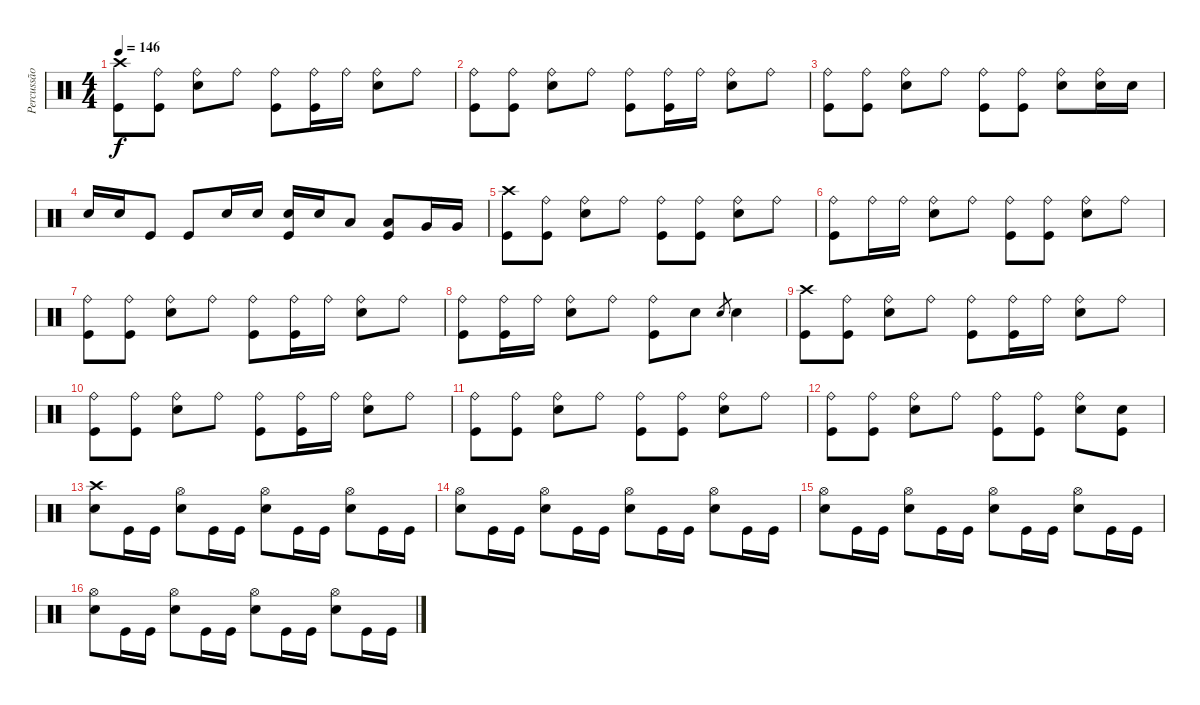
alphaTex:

\track ("Percussão" "Percussão") {instrument percussion}
\staff {score}
\articulation defaults
\ts (4 4)
\tempo 146
\clef neutral
\ks c
("Crash high (hit)" "Kick (hit)").8{dy f} ("Ride (bell)" "Kick (hit)").8 ("Ride (bell)" "Snare (hit) 2").8 "Ride (bell)".8 ("Ride (bell)" "Kick (hit)").8 ("Ride (bell)" "Kick (hit)").16 "Ride (bell)".16 ("Ride (bell)" "Snare (hit) 2").8 "Ride (bell)".8 |
("Ride (bell)" "Kick (hit)").8 ("Ride (bell)" "Kick (hit)").8 ("Ride (bell)" "Snare (hit) 2").8 "Ride (bell)".8 ("Ride (bell)" "Kick (hit)").8 ("Ride (bell)" "Kick (hit)").16 "Ride (bell)".16 ("Ride (bell)" "Snare (hit) 2").8 "Ride (bell)".8 |
("Ride (bell)" "Kick (hit)").8 ("Ride (bell)" "Kick (hit)").8 ("Ride (bell)" "Snare (hit) 2").8 "Ride (bell)".8 ("Ride (bell)" "Kick (hit)").8 ("Ride (bell)" "Kick (hit)").8 ("Ride (bell)" "Snare (hit) 2").8 ("Ride (bell)" "Snare (hit) 2").16 "Snare (hit) 2".16 |
"Snare (hit) 2".16 "Snare (hit) 2".16 "Kick (hit)".8 "Kick (hit)".8 "Snare (hit) 2".16 "Snare (hit) 2".16 ("Snare (hit) 2" "Kick (hit)").16 "Snare (hit) 2".16 "Low Tom (hit)".8 ("Low Tom (hit)" "Kick (hit)").8 "Very Low Tom (hit)".16 "Very Low Tom (hit)".16 |
("Crash high (hit)" "Kick (hit)").8 ("Ride (bell)" "Kick (hit)").8 ("Ride (bell)" "Snare (hit) 2").8 "Ride (bell)".8 ("Ride (bell)" "Kick (hit)").8 ("Ride (bell)" "Kick (hit)").8 ("Ride (bell)" "Snare (hit) 2").8 "Ride (bell)".8 |
("Ride (bell)" "Kick (hit)").8 "Ride (bell)".16 "Ride (bell)".16 ("Ride (bell)" "Snare (hit) 2").8 "Ride (bell)".8 ("Ride (bell)" "Kick (hit)").8 ("Ride (bell)" "Kick (hit)").8 ("Ride (bell)" "Snare (hit) 2").8 "Ride (bell)".8 |
("Ride (bell)" "Kick (hit)").8 ("Ride (bell)" "Kick (hit)").8 ("Ride (bell)" "Snare (hit) 2").8 "Ride (bell)".8 ("Ride (bell)" "Kick (hit)").8 ("Ride (bell)" "Kick (hit)").16 "Ride (bell)".16 ("Ride (bell)" "Snare (hit) 2").8 "Ride (bell)".8 |
("Ride (bell)" "Kick (hit)").8 ("Ride (bell)" "Kick (hit)").16 "Ride (bell)".16 ("Ride (bell)" "Snare (hit) 2").8 "Ride (bell)".8 ("Ride (bell)" "Kick (hit)").8 "Snare (hit) 2".8 "Snare (hit) 2".8{gr} "Snare (hit) 2".4 |
("Crash high (hit)" "Kick (hit)").8 ("Ride (bell)" "Kick (hit)").8 ("Ride (bell)" "Snare (hit) 2").8 "Ride (bell)".8 ("Ride (bell)" "Kick (hit)").8 ("Ride (bell)" "Kick (hit)").16 "Ride (bell)".16 ("Ride (bell)" "Snare (hit) 2").8 "Ride (bell)".8 |
("Ride (bell)" "Kick (hit)").8 ("Ride (bell)" "Kick (hit)").8 ("Ride (bell)" "Snare (hit) 2").8 "Ride (bell)".8 ("Ride (bell)" "Kick (hit)").8 ("Ride (bell)" "Kick (hit)").16 "Ride (bell)".16 ("Ride (bell)" "Snare (hit) 2").8 "Ride (bell)".8 |
("Ride (bell)" "Kick (hit)").8 ("Ride (bell)" "Kick (hit)").8 ("Ride (bell)" "Snare (hit) 2").8 "Ride (bell)".8 ("Ride (bell)" "Kick (hit)").8 ("Ride (bell)" "Kick (hit)").8 ("Ride (bell)" "Snare (hit) 2").8 "Ride (bell)".8 |
("Ride (bell)" "Kick (hit)").8 ("Ride (bell)" "Kick (hit)").8 ("Ride (bell)" "Snare (hit) 2").8 "Ride (bell)".8 ("Ride (bell)" "Kick (hit)").8 ("Ride (bell)" "Kick (hit)").8 ("Ride (bell)" "Snare (hit) 2").8 ("Snare (hit) 2" "Kick (hit)").8 |
("Crash high (hit)" "Snare (hit) 2").8 "Kick (hit)".16 "Kick (hit)".16 ("Hi-Hat (open)" "Snare (hit) 2").8 "Kick (hit)".16 "Kick (hit)".16 ("Hi-Hat (open)" "Snare (hit) 2").8 "Kick (hit)".16 "Kick (hit)".16 ("Hi-Hat (open)" "Snare (hit) 2").8 "Kick (hit)".16 "Kick (hit)".16 |
("Hi-Hat (open)" "Snare (hit) 2").8 "Kick (hit)".16 "Kick (hit)".16 ("Hi-Hat (open)" "Snare (hit) 2").8 "Kick (hit)".16 "Kick (hit)".16 ("Hi-Hat (open)" "Snare (hit) 2").8 "Kick (hit)".16 "Kick (hit)".16 ("Hi-Hat (open)" "Snare (hit) 2").8 "Kick (hit)".16 "Kick (hit)".16 |
("Hi-Hat (open)" "Snare (hit) 2").8 "Kick (hit)".16 "Kick (hit)".16 ("Hi-Hat (open)" "Snare (hit) 2").8 "Kick (hit)".16 "Kick (hit)".16 ("Hi-Hat (open)" "Snare (hit) 2").8 "Kick (hit)".16 "Kick (hit)".16 ("Hi-Hat (open)" "Snare (hit) 2").8 "Kick (hit)".16 "Kick (hit)".16 |
("Hi-Hat (open)" "Snare (hit) 2").8 "Kick (hit)".16 "Kick (hit)".16 ("Hi-Hat (open)" "Snare (hit) 2").8 "Kick (hit)".16 "Kick (hit)".16 ("Hi-Hat (open)" "Snare (hit) 2").8 "Kick (hit)".16 "Kick (hit)".16 ("Hi-Hat (open)" "Snare (hit) 2").8 "Kick (hit)".16 "Kick (hit)".16
